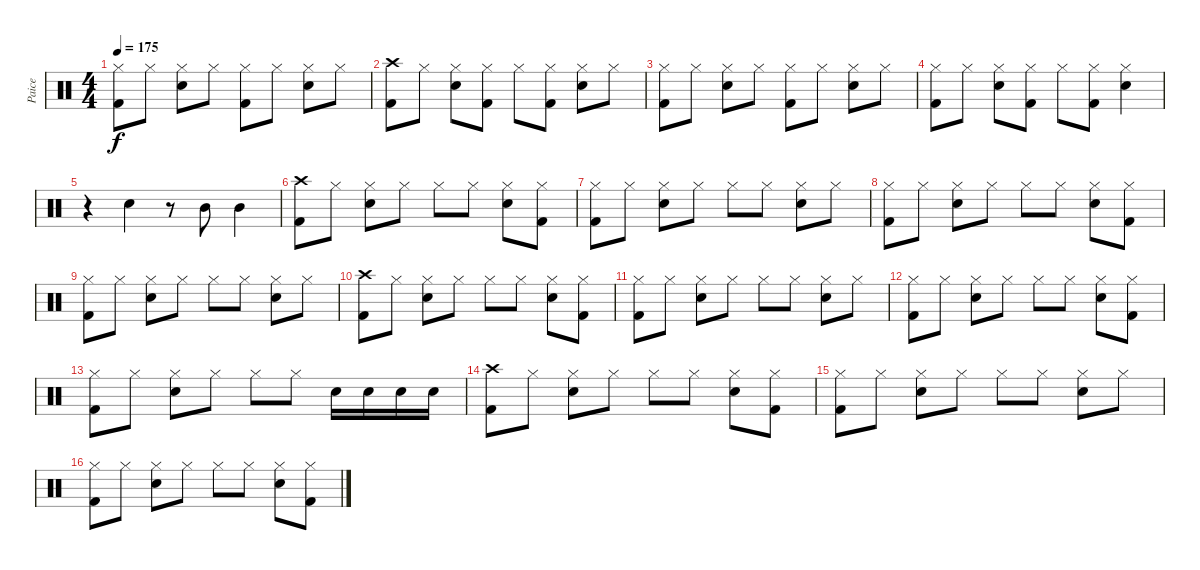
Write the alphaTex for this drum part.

\track ("Paice" "Paice") {instrument percussion}
\staff {score}
\articulation defaults
\ts (4 4)
\tempo 175
\clef neutral
\ks c
("Hi-Hat (closed)" "Kick (hit) 2").8{dy f} "Hi-Hat (closed)".8 ("Hi-Hat (closed)" "Electric Snare (hit)").8 "Hi-Hat (closed)".8 ("Hi-Hat (closed)" "Kick (hit) 2").8 "Hi-Hat (closed)".8 ("Hi-Hat (closed)" "Electric Snare (hit)").8 "Hi-Hat (closed)".8 |
("Crash high (hit)" "Kick (hit) 2").8 "Hi-Hat (closed)".8 ("Hi-Hat (closed)" "Electric Snare (hit)").8 ("Hi-Hat (closed)" "Kick (hit) 2").8 "Hi-Hat (closed)".8 ("Hi-Hat (closed)" "Kick (hit) 2").8 ("Hi-Hat (closed)" "Electric Snare (hit)").8 "Hi-Hat (closed)".8 |
("Hi-Hat (closed)" "Kick (hit) 2").8 "Hi-Hat (closed)".8 ("Hi-Hat (closed)" "Electric Snare (hit)").8 "Hi-Hat (closed)".8 ("Hi-Hat (closed)" "Kick (hit) 2").8 "Hi-Hat (closed)".8 ("Hi-Hat (closed)" "Electric Snare (hit)").8 "Hi-Hat (closed)".8 |
("Hi-Hat (closed)" "Kick (hit) 2").8 "Hi-Hat (closed)".8 ("Hi-Hat (closed)" "Electric Snare (hit)").8 ("Hi-Hat (closed)" "Kick (hit) 2").8 "Hi-Hat (closed)".8 ("Hi-Hat (closed)" "Kick (hit) 2").8 ("Hi-Hat (closed)" "Electric Snare (hit)").4 |
r.4 "Electric Snare (hit)".4 r.8 "Mid Tom (hit)".8 "Mid Tom (hit)".4 |
("Crash high (hit)" "Kick (hit) 2").8 "Hi-Hat (closed)".8 ("Hi-Hat (closed)" "Electric Snare (hit)").8 "Hi-Hat (closed)".8 "Hi-Hat (closed)".8 "Hi-Hat (closed)".8 ("Hi-Hat (closed)" "Electric Snare (hit)").8 ("Hi-Hat (closed)" "Kick (hit) 2").8 |
("Hi-Hat (closed)" "Kick (hit) 2").8 "Hi-Hat (closed)".8 ("Hi-Hat (closed)" "Electric Snare (hit)").8 "Hi-Hat (closed)".8 "Hi-Hat (closed)".8 "Hi-Hat (closed)".8 ("Hi-Hat (closed)" "Electric Snare (hit)").8 "Hi-Hat (closed)".8 |
("Hi-Hat (closed)" "Kick (hit) 2").8 "Hi-Hat (closed)".8 ("Hi-Hat (closed)" "Electric Snare (hit)").8 "Hi-Hat (closed)".8 "Hi-Hat (closed)".8 "Hi-Hat (closed)".8 ("Hi-Hat (closed)" "Electric Snare (hit)").8 ("Hi-Hat (closed)" "Kick (hit) 2").8 |
("Hi-Hat (closed)" "Kick (hit) 2").8 "Hi-Hat (closed)".8 ("Hi-Hat (closed)" "Electric Snare (hit)").8 "Hi-Hat (closed)".8 "Hi-Hat (closed)".8 "Hi-Hat (closed)".8 ("Hi-Hat (closed)" "Electric Snare (hit)").8 "Hi-Hat (closed)".8 |
("Crash high (hit)" "Kick (hit) 2").8 "Hi-Hat (closed)".8 ("Hi-Hat (closed)" "Electric Snare (hit)").8 "Hi-Hat (closed)".8 "Hi-Hat (closed)".8 "Hi-Hat (closed)".8 ("Hi-Hat (closed)" "Electric Snare (hit)").8 ("Hi-Hat (closed)" "Kick (hit) 2").8 |
("Hi-Hat (closed)" "Kick (hit) 2").8 "Hi-Hat (closed)".8 ("Hi-Hat (closed)" "Electric Snare (hit)").8 "Hi-Hat (closed)".8 "Hi-Hat (closed)".8 "Hi-Hat (closed)".8 ("Hi-Hat (closed)" "Electric Snare (hit)").8 "Hi-Hat (closed)".8 |
("Hi-Hat (closed)" "Kick (hit) 2").8 "Hi-Hat (closed)".8 ("Hi-Hat (closed)" "Electric Snare (hit)").8 "Hi-Hat (closed)".8 "Hi-Hat (closed)".8 "Hi-Hat (closed)".8 ("Hi-Hat (closed)" "Electric Snare (hit)").8 ("Hi-Hat (closed)" "Kick (hit) 2").8 |
("Hi-Hat (closed)" "Kick (hit) 2").8 "Hi-Hat (closed)".8 ("Hi-Hat (closed)" "Electric Snare (hit)").8 "Hi-Hat (closed)".8 "Hi-Hat (closed)".8 "Hi-Hat (closed)".8 "Electric Snare (hit)".16 "Electric Snare (hit)".16 "Electric Snare (hit)".16 "Electric Snare (hit)".16 |
("Crash high (hit)" "Kick (hit) 2").8 "Hi-Hat (closed)".8 ("Hi-Hat (closed)" "Electric Snare (hit)").8 "Hi-Hat (closed)".8 "Hi-Hat (closed)".8 "Hi-Hat (closed)".8 ("Hi-Hat (closed)" "Electric Snare (hit)").8 ("Hi-Hat (closed)" "Kick (hit) 2").8 |
("Hi-Hat (closed)" "Kick (hit) 2").8 "Hi-Hat (closed)".8 ("Hi-Hat (closed)" "Electric Snare (hit)").8 "Hi-Hat (closed)".8 "Hi-Hat (closed)".8 "Hi-Hat (closed)".8 ("Hi-Hat (closed)" "Electric Snare (hit)").8 "Hi-Hat (closed)".8 |
("Hi-Hat (closed)" "Kick (hit) 2").8 "Hi-Hat (closed)".8 ("Hi-Hat (closed)" "Electric Snare (hit)").8 "Hi-Hat (closed)".8 "Hi-Hat (closed)".8 "Hi-Hat (closed)".8 ("Hi-Hat (closed)" "Electric Snare (hit)").8 ("Hi-Hat (closed)" "Kick (hit) 2").8
